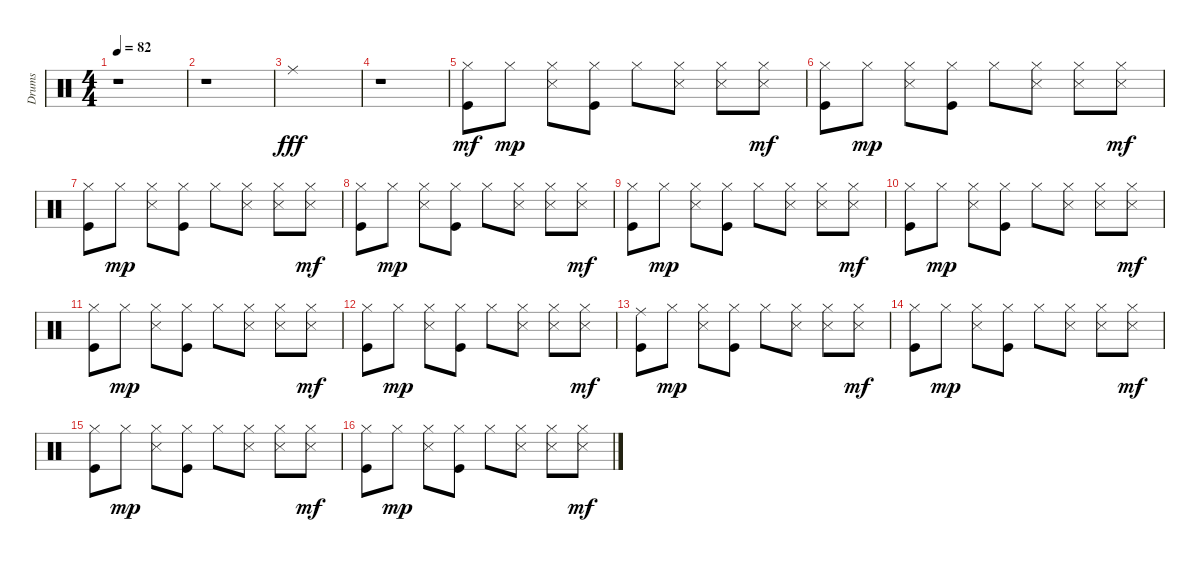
\track ("Drums" "Drums") {instrument percussion}
\staff {score}
\articulation defaults
\ts (4 4)
\tempo 82
\clef neutral
\ks c
r.1{dy fff} |
r.1 |
"Ride (middle)".1 |
r.1 |
("Kick (hit)" "Hi-Hat (closed)").8{dy mf} "Hi-Hat (closed)".8{dy mp} ("Snare (side stick) 3" "Hi-Hat (closed)").8 ("Kick (hit)" "Hi-Hat (closed)").8 "Hi-Hat (closed)".8 ("Snare (side stick) 3" "Hi-Hat (closed)").8 ("Snare (side stick) 3" "Hi-Hat (closed)").8 ("Snare (side stick) 3" "Hi-Hat (closed)").8{dy mf} |
("Kick (hit)" "Hi-Hat (closed)").8 "Hi-Hat (closed)".8{dy mp} ("Snare (side stick) 3" "Hi-Hat (closed)").8 ("Kick (hit)" "Hi-Hat (closed)").8 "Hi-Hat (closed)".8 ("Snare (side stick) 3" "Hi-Hat (closed)").8 ("Snare (side stick) 3" "Hi-Hat (closed)").8 ("Snare (side stick) 3" "Hi-Hat (closed)").8{dy mf} |
("Kick (hit)" "Hi-Hat (closed)").8 "Hi-Hat (closed)".8{dy mp} ("Snare (side stick) 3" "Hi-Hat (closed)").8 ("Kick (hit)" "Hi-Hat (closed)").8 "Hi-Hat (closed)".8 ("Snare (side stick) 3" "Hi-Hat (closed)").8 ("Snare (side stick) 3" "Hi-Hat (closed)").8 ("Snare (side stick) 3" "Hi-Hat (closed)").8{dy mf} |
("Kick (hit)" "Hi-Hat (closed)").8 "Hi-Hat (closed)".8{dy mp} ("Snare (side stick) 3" "Hi-Hat (closed)").8 ("Kick (hit)" "Hi-Hat (closed)").8 "Hi-Hat (closed)".8 ("Snare (side stick) 3" "Hi-Hat (closed)").8 ("Snare (side stick) 3" "Hi-Hat (closed)").8 ("Snare (side stick) 3" "Hi-Hat (closed)").8{dy mf} |
("Kick (hit)" "Hi-Hat (closed)").8 "Hi-Hat (closed)".8{dy mp} ("Snare (side stick) 3" "Hi-Hat (closed)").8 ("Kick (hit)" "Hi-Hat (closed)").8 "Hi-Hat (closed)".8 ("Snare (side stick) 3" "Hi-Hat (closed)").8 ("Snare (side stick) 3" "Hi-Hat (closed)").8 ("Snare (side stick) 3" "Hi-Hat (closed)").8{dy mf} |
("Kick (hit)" "Hi-Hat (closed)").8 "Hi-Hat (closed)".8{dy mp} ("Snare (side stick) 3" "Hi-Hat (closed)").8 ("Kick (hit)" "Hi-Hat (closed)").8 "Hi-Hat (closed)".8 ("Snare (side stick) 3" "Hi-Hat (closed)").8 ("Snare (side stick) 3" "Hi-Hat (closed)").8 ("Snare (side stick) 3" "Hi-Hat (closed)").8{dy mf} |
("Kick (hit)" "Hi-Hat (closed)").8 "Hi-Hat (closed)".8{dy mp} ("Snare (side stick) 3" "Hi-Hat (closed)").8 ("Kick (hit)" "Hi-Hat (closed)").8 "Hi-Hat (closed)".8 ("Snare (side stick) 3" "Hi-Hat (closed)").8 ("Snare (side stick) 3" "Hi-Hat (closed)").8 ("Snare (side stick) 3" "Hi-Hat (closed)").8{dy mf} |
("Kick (hit)" "Hi-Hat (closed)").8 "Hi-Hat (closed)".8{dy mp} ("Snare (side stick) 3" "Hi-Hat (closed)").8 ("Kick (hit)" "Hi-Hat (closed)").8 "Hi-Hat (closed)".8 ("Snare (side stick) 3" "Hi-Hat (closed)").8 ("Snare (side stick) 3" "Hi-Hat (closed)").8 ("Snare (side stick) 3" "Hi-Hat (closed)").8{dy mf} |
("Kick (hit)" "Ride (middle)").8 "Hi-Hat (closed)".8{dy mp} ("Snare (side stick) 3" "Hi-Hat (closed)").8 ("Kick (hit)" "Hi-Hat (closed)").8 "Hi-Hat (closed)".8 ("Snare (side stick) 3" "Hi-Hat (closed)").8 ("Snare (side stick) 3" "Hi-Hat (closed)").8 ("Snare (side stick) 3" "Hi-Hat (closed)").8{dy mf} |
("Kick (hit)" "Hi-Hat (closed)").8 "Hi-Hat (closed)".8{dy mp} ("Snare (side stick) 3" "Hi-Hat (closed)").8 ("Kick (hit)" "Hi-Hat (closed)").8 "Hi-Hat (closed)".8 ("Snare (side stick) 3" "Hi-Hat (closed)").8 ("Snare (side stick) 3" "Hi-Hat (closed)").8 ("Snare (side stick) 3" "Hi-Hat (closed)").8{dy mf} |
("Kick (hit)" "Hi-Hat (closed)").8 "Hi-Hat (closed)".8{dy mp} ("Snare (side stick) 3" "Hi-Hat (closed)").8 ("Kick (hit)" "Hi-Hat (closed)").8 "Hi-Hat (closed)".8 ("Snare (side stick) 3" "Hi-Hat (closed)").8 ("Snare (side stick) 3" "Hi-Hat (closed)").8 ("Snare (side stick) 3" "Hi-Hat (closed)").8{dy mf} |
("Kick (hit)" "Hi-Hat (closed)").8 "Hi-Hat (closed)".8{dy mp} ("Snare (side stick) 3" "Hi-Hat (closed)").8 ("Kick (hit)" "Hi-Hat (closed)").8 "Hi-Hat (closed)".8 ("Snare (side stick) 3" "Hi-Hat (closed)").8 ("Snare (side stick) 3" "Hi-Hat (closed)").8 ("Snare (side stick) 3" "Hi-Hat (closed)").8{dy mf}
